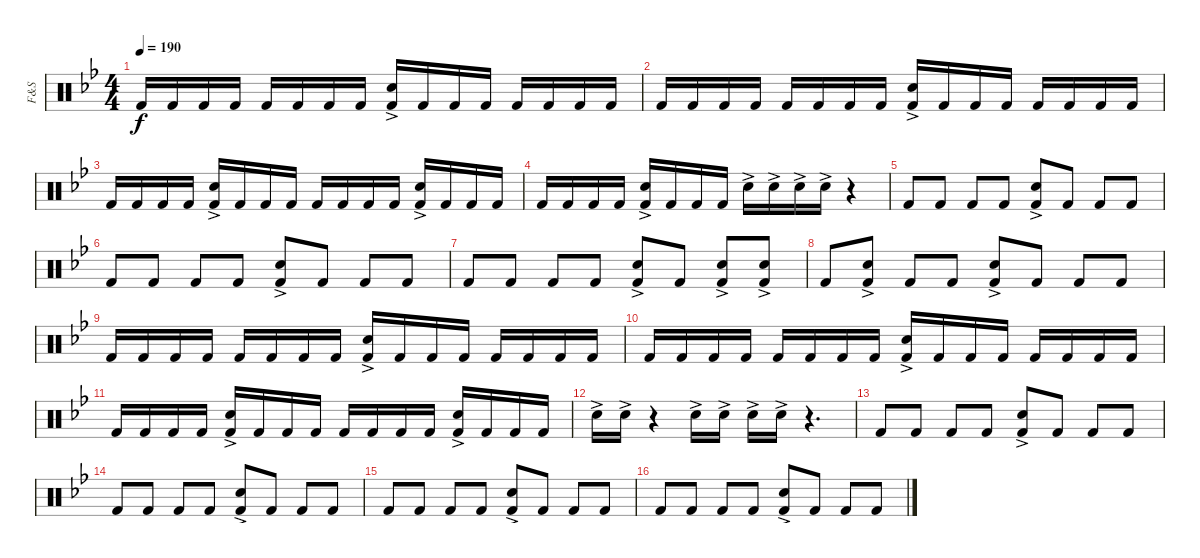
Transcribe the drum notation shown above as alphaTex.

\track ("F&S" "F&S") {instrument percussion}
\staff {score}
\articulation defaults
\ts (4 4)
\tempo 190
\clef neutral
\ks bb "Kick (hit) 2".16{dy f} "Kick (hit) 2".16 "Kick (hit) 2".16 "Kick (hit) 2".16 "Kick (hit) 2".16 "Kick (hit) 2".16 "Kick (hit) 2".16 "Kick (hit) 2".16
("Kick (hit) 2" "Snare (hit) 2"{ac}).16 "Kick (hit) 2".16 "Kick (hit) 2".16 "Kick (hit) 2".16 "Kick (hit) 2".16 "Kick (hit) 2".16 "Kick (hit) 2".16 "Kick (hit) 2".16 |
"Kick (hit) 2".16 "Kick (hit) 2".16 "Kick (hit) 2".16 "Kick (hit) 2".16 "Kick (hit) 2".16 "Kick (hit) 2".16 "Kick (hit) 2".16 "Kick (hit) 2".16 ("Kick (hit) 2" "Snare (hit) 2"{ac}).16 "Kick (hit) 2".16 "Kick (hit) 2".16 "Kick (hit) 2".16 "Kick (hit) 2".16 "Kick (hit) 2".16 "Kick (hit) 2".16 "Kick (hit) 2".16 |
"Kick (hit) 2".16 "Kick (hit) 2".16 "Kick (hit) 2".16 "Kick (hit) 2".16 ("Kick (hit) 2" "Snare (hit) 2"{ac}).16 "Kick (hit) 2".16 "Kick (hit) 2".16 "Kick (hit) 2".16 "Kick (hit) 2".16 "Kick (hit) 2".16 "Kick (hit) 2".16 "Kick (hit) 2".16 ("Kick (hit) 2" "Snare (hit) 2"{ac}).16 "Kick (hit) 2".16 "Kick (hit) 2".16 "Kick (hit) 2".16 |
"Kick (hit) 2".16 "Kick (hit) 2".16 "Kick (hit) 2".16 "Kick (hit) 2".16 ("Kick (hit) 2" "Snare (hit) 2"{ac}).16 "Kick (hit) 2".16 "Kick (hit) 2".16 "Kick (hit) 2".16 "Snare (hit) 2"{ac}.16 "Snare (hit) 2"{ac}.16 "Snare (hit) 2"{ac}.16 "Snare (hit) 2"{ac}.16 r.4 |
"Kick (hit) 2".8 "Kick (hit) 2".8 "Kick (hit) 2".8 "Kick (hit) 2".8 ("Kick (hit) 2" "Snare (hit) 2"{ac}).8 "Kick (hit) 2".8 "Kick (hit) 2".8 "Kick (hit) 2".8 |
"Kick (hit) 2".8 "Kick (hit) 2".8 "Kick (hit) 2".8 "Kick (hit) 2".8 ("Kick (hit) 2" "Snare (hit) 2"{ac}).8 "Kick (hit) 2".8 "Kick (hit) 2".8 "Kick (hit) 2".8 |
"Kick (hit) 2".8 "Kick (hit) 2".8 "Kick (hit) 2".8 "Kick (hit) 2".8 ("Kick (hit) 2" "Snare (hit) 2"{ac}).8 "Kick (hit) 2".8 ("Kick (hit) 2" "Snare (hit) 2"{ac}).8 ("Kick (hit) 2" "Snare (hit) 2"{ac}).8 |
"Kick (hit) 2".8 ("Kick (hit) 2" "Snare (hit) 2"{ac}).8 "Kick (hit) 2".8 "Kick (hit) 2".8 ("Kick (hit) 2" "Snare (hit) 2"{ac}).8 "Kick (hit) 2".8 "Kick (hit) 2".8 "Kick (hit) 2".8 |
"Kick (hit) 2".16 "Kick (hit) 2".16 "Kick (hit) 2".16 "Kick (hit) 2".16 "Kick (hit) 2".16 "Kick (hit) 2".16 "Kick (hit) 2".16 "Kick (hit) 2".16 ("Kick (hit) 2" "Snare (hit) 2"{ac}).16 "Kick (hit) 2".16 "Kick (hit) 2".16 "Kick (hit) 2".16 "Kick (hit) 2".16 "Kick (hit) 2".16 "Kick (hit) 2".16 "Kick (hit) 2".16 |
"Kick (hit) 2".16 "Kick (hit) 2".16 "Kick (hit) 2".16 "Kick (hit) 2".16 "Kick (hit) 2".16 "Kick (hit) 2".16 "Kick (hit) 2".16 "Kick (hit) 2".16 ("Kick (hit) 2" "Snare (hit) 2"{ac}).16 "Kick (hit) 2".16 "Kick (hit) 2".16 "Kick (hit) 2".16 "Kick (hit) 2".16 "Kick (hit) 2".16 "Kick (hit) 2".16 "Kick (hit) 2".16 |
"Kick (hit) 2".16 "Kick (hit) 2".16 "Kick (hit) 2".16 "Kick (hit) 2".16 ("Kick (hit) 2" "Snare (hit) 2"{ac}).16 "Kick (hit) 2".16 "Kick (hit) 2".16 "Kick (hit) 2".16 "Kick (hit) 2".16 "Kick (hit) 2".16 "Kick (hit) 2".16 "Kick (hit) 2".16 ("Kick (hit) 2" "Snare (hit) 2"{ac}).16 "Kick (hit) 2".16 "Kick (hit) 2".16 "Kick (hit) 2".16 |
"Snare (hit) 2"{ac}.16 "Snare (hit) 2"{ac}.16 r.4 "Snare (hit) 2"{ac}.16 "Snare (hit) 2"{ac}.16 "Snare (hit) 2"{ac}.16 "Snare (hit) 2"{ac}.16 r.4{d} |
"Kick (hit) 2".8 "Kick (hit) 2".8 "Kick (hit) 2".8 "Kick (hit) 2".8 ("Kick (hit) 2" "Snare (hit) 2"{ac}).8 "Kick (hit) 2".8 "Kick (hit) 2".8 "Kick (hit) 2".8 |
"Kick (hit) 2".8 "Kick (hit) 2".8 "Kick (hit) 2".8 "Kick (hit) 2".8 ("Kick (hit) 2" "Snare (hit) 2"{ac}).8 "Kick (hit) 2".8 "Kick (hit) 2".8 "Kick (hit) 2".8 |
"Kick (hit) 2".8 "Kick (hit) 2".8 "Kick (hit) 2".8 "Kick (hit) 2".8 ("Kick (hit) 2" "Snare (hit) 2"{ac}).8 "Kick (hit) 2".8 "Kick (hit) 2".8 "Kick (hit) 2".8 |
"Kick (hit) 2".8 "Kick (hit) 2".8 "Kick (hit) 2".8 "Kick (hit) 2".8 ("Kick (hit) 2" "Snare (hit) 2"{ac}).8 "Kick (hit) 2".8 "Kick (hit) 2".8 "Kick (hit) 2".8
